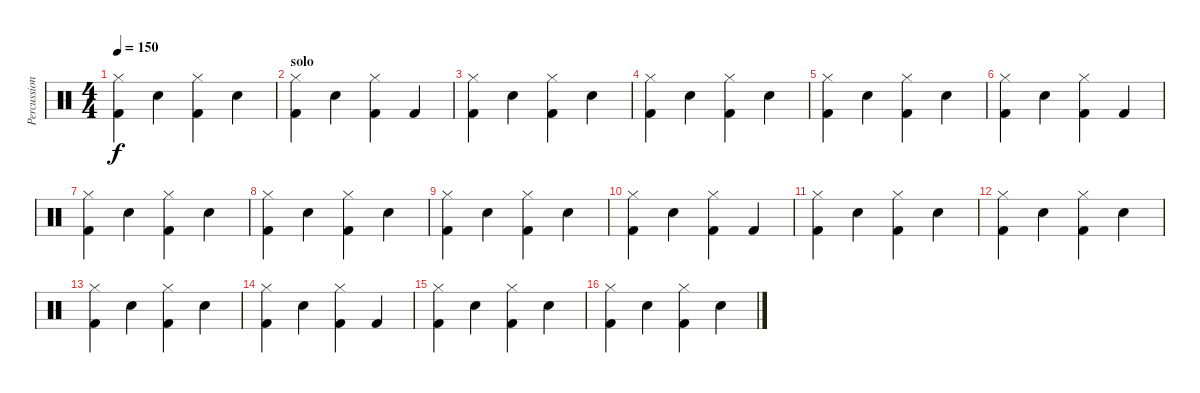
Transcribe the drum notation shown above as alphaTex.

\track ("Percussion" "Percussion") {instrument percussion}
\staff {score}
\articulation defaults
\ts (4 4)
\tempo 150
\clef neutral
\ks c
("Hi-Hat (closed)" "Kick (hit) 2").4{dy f} "Snare (hit) 2".4 ("Hi-Hat (closed)" "Kick (hit) 2").4 "Snare (hit) 2".4 |
\section ("" "solo")
("Hi-Hat (closed)" "Kick (hit) 2").4 "Snare (hit) 2".4 ("Hi-Hat (closed)" "Kick (hit) 2").4 "Kick (hit) 2".4 |
("Hi-Hat (closed)" "Kick (hit) 2").4 "Snare (hit) 2".4 ("Hi-Hat (closed)" "Kick (hit) 2").4 "Snare (hit) 2".4 |
("Hi-Hat (closed)" "Kick (hit) 2").4 "Snare (hit) 2".4 ("Hi-Hat (closed)" "Kick (hit) 2").4 "Snare (hit) 2".4 |
("Hi-Hat (closed)" "Kick (hit) 2").4 "Snare (hit) 2".4 ("Hi-Hat (closed)" "Kick (hit) 2").4 "Snare (hit) 2".4 |
("Hi-Hat (closed)" "Kick (hit) 2").4 "Snare (hit) 2".4 ("Hi-Hat (closed)" "Kick (hit) 2").4 "Kick (hit) 2".4 |
("Hi-Hat (closed)" "Kick (hit) 2").4 "Snare (hit) 2".4 ("Hi-Hat (closed)" "Kick (hit) 2").4 "Snare (hit) 2".4 |
("Hi-Hat (closed)" "Kick (hit) 2").4 "Snare (hit) 2".4 ("Hi-Hat (closed)" "Kick (hit) 2").4 "Snare (hit) 2".4 |
("Hi-Hat (closed)" "Kick (hit) 2").4 "Snare (hit) 2".4 ("Hi-Hat (closed)" "Kick (hit) 2").4 "Snare (hit) 2".4 |
("Hi-Hat (closed)" "Kick (hit) 2").4 "Snare (hit) 2".4 ("Hi-Hat (closed)" "Kick (hit) 2").4 "Kick (hit) 2".4 |
("Hi-Hat (closed)" "Kick (hit) 2").4 "Snare (hit) 2".4 ("Hi-Hat (closed)" "Kick (hit) 2").4 "Snare (hit) 2".4 |
("Hi-Hat (closed)" "Kick (hit) 2").4 "Snare (hit) 2".4 ("Hi-Hat (closed)" "Kick (hit) 2").4 "Snare (hit) 2".4 |
("Hi-Hat (closed)" "Kick (hit) 2").4 "Snare (hit) 2".4 ("Hi-Hat (closed)" "Kick (hit) 2").4 "Snare (hit) 2".4 |
("Hi-Hat (closed)" "Kick (hit) 2").4 "Snare (hit) 2".4 ("Hi-Hat (closed)" "Kick (hit) 2").4 "Kick (hit) 2".4 |
("Hi-Hat (closed)" "Kick (hit) 2").4 "Snare (hit) 2".4 ("Hi-Hat (closed)" "Kick (hit) 2").4 "Snare (hit) 2".4 |
("Hi-Hat (closed)" "Kick (hit) 2").4 "Snare (hit) 2".4 ("Hi-Hat (closed)" "Kick (hit) 2").4 "Snare (hit) 2".4
